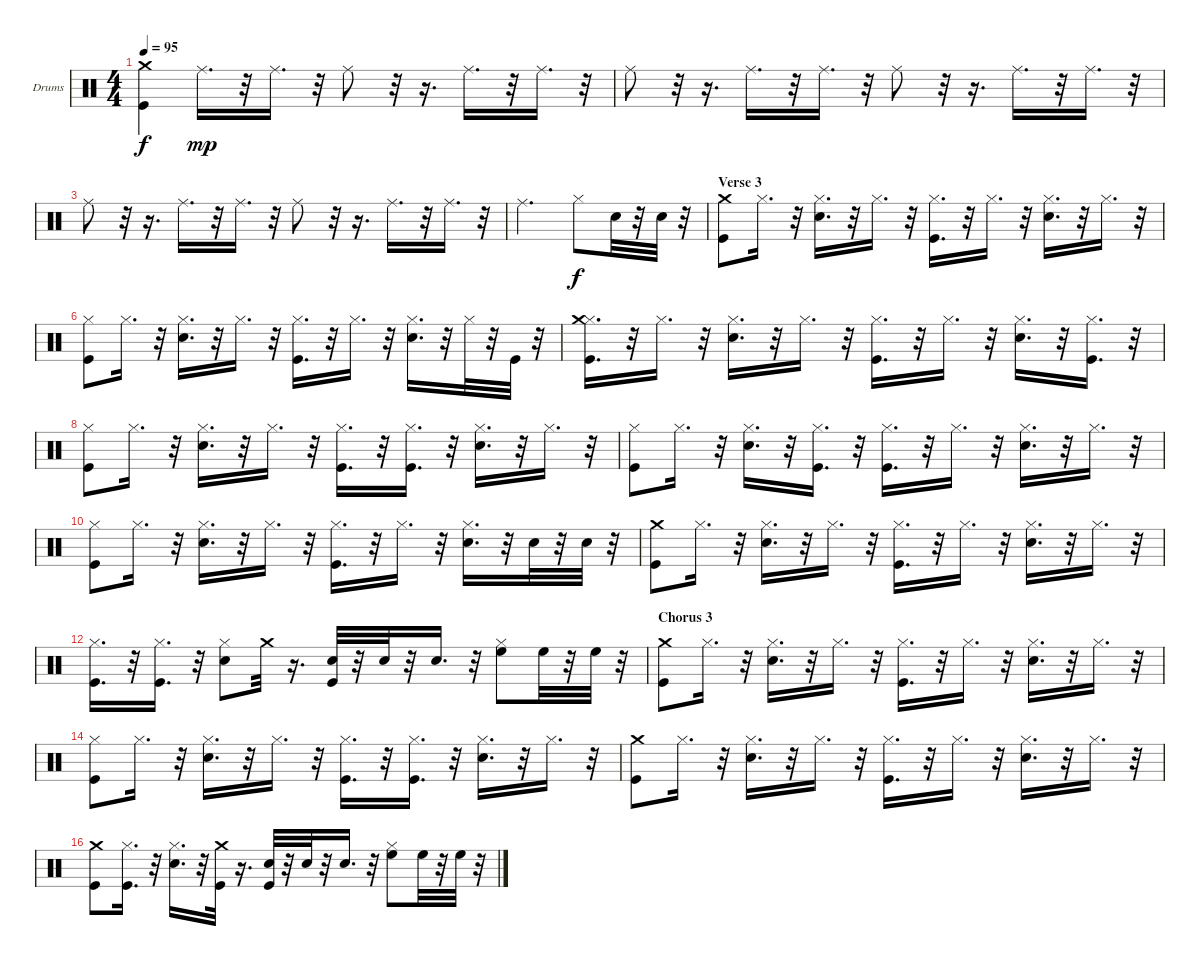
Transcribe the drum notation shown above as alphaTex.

\bracketExtendMode nobrackets
\firstSystemTrackNameOrientation horizontal
\otherSystemsTrackNameOrientation horizontal
\defaultBarNumberDisplay FirstOfSystem
\track ("Drumkit" "Drums") {instrument percussion}
\staff {score}
\articulation defaults
\ts (4 4)
\tempo 95
\clef neutral
\scale
0.477895
\ks c
("Kick (hit)" "Crash medium (hit)").4{dy f} "Ride (middle)".16{d dy mp} r.32 "Ride (middle)".16{d} r.32 "Ride (middle)".8 r.32 r.16{d} "Ride (middle)".16{d} r.32 "Ride (middle)".16{d} r.32 |
\scale
0.522105 "Ride (middle)".8 r.32 r.16{d} "Ride (middle)".16{d} r.32 "Ride (middle)".16{d} r.32 "Ride (middle)".8 r.32 r.16{d} "Ride (middle)".16{d} r.32 "Ride (middle)".16{d} r.32 |
\scale
0.632653 "Ride (middle)".8 r.32 r.16{d} "Ride (middle)".16{d} r.32 "Ride (middle)".16{d} r.32 "Ride (middle)".8 r.32 r.16{d} "Ride (middle)".16{d} r.32 "Ride (middle)".16{d} r.32 |
\scale
0.367347 "Ride (middle)".2{d} "Hi-Hat (closed)".8{dy f} "Snare (hit) 2".32 r.32 "Snare (hit) 2".32 r.32 |
\section ("" "Verse 3")
\scale
0.486692 ("Crash medium (hit)" "Kick (hit)").8 "Hi-Hat (closed)".16{d} r.32 ("Hi-Hat (closed)" "Snare (hit) 2").16{d} r.32 "Hi-Hat (closed)".16{d} r.32 ("Hi-Hat (closed)" "Kick (hit)").16{d} r.32 "Hi-Hat (closed)".16{d} r.32 ("Hi-Hat (closed)" "Snare (hit) 2").16{d} r.32 "Hi-Hat (closed)".16{d} r.32 |
\scale
0.513308 ("Hi-Hat (closed)" "Kick (hit)").8 "Hi-Hat (closed)".16{d} r.32 ("Hi-Hat (closed)" "Snare (hit) 2").16{d} r.32 "Hi-Hat (closed)".16{d} r.32 ("Hi-Hat (closed)" "Kick (hit)").16{d} r.32 "Hi-Hat (closed)".16{d} r.32 ("Hi-Hat (closed)" "Snare (hit) 2").16{d} r.32 "Hi-Hat (closed)".32 r.32 "Kick (hit)".32 r.32 |
\scale
0.507692 ("Hi-Hat (closed)" "Crash medium (hit)" "Kick (hit)").16{d} r.32 "Hi-Hat (closed)".16{d} r.32 ("Hi-Hat (closed)" "Snare (hit) 2").16{d} r.32 "Hi-Hat (closed)".16{d} r.32 ("Hi-Hat (closed)" "Kick (hit)").16{d} r.32 "Hi-Hat (closed)".16{d} r.32 ("Hi-Hat (closed)" "Snare (hit) 2").16{d} r.32 ("Hi-Hat (closed)" "Kick (hit)").16{d} r.32 |
\scale
0.492308 ("Hi-Hat (closed)" "Kick (hit)").8 "Hi-Hat (closed)".16{d} r.32 ("Hi-Hat (closed)" "Snare (hit) 2").16{d} r.32 "Hi-Hat (closed)".16{d} r.32 ("Hi-Hat (closed)" "Kick (hit)").16{d} r.32 ("Hi-Hat (closed)" "Kick (hit)").16{d} r.32 ("Hi-Hat (closed)" "Snare (hit) 2").16{d} r.32 "Hi-Hat (closed)".16{d} r.32 |
\scale
0.486692 ("Hi-Hat (closed)" "Kick (hit)").8 "Hi-Hat (closed)".16{d} r.32 ("Hi-Hat (closed)" "Snare (hit) 2").16{d} r.32 ("Hi-Hat (closed)" "Kick (hit)").16{d} r.32 ("Hi-Hat (closed)" "Kick (hit)").16{d} r.32 "Hi-Hat (closed)".16{d} r.32 ("Hi-Hat (closed)" "Snare (hit) 2").16{d} r.32 "Hi-Hat (closed)".16{d} r.32 |
\scale
0.513308 ("Hi-Hat (closed)" "Kick (hit)").8 "Hi-Hat (closed)".16{d} r.32 ("Hi-Hat (closed)" "Snare (hit) 2").16{d} r.32 "Hi-Hat (closed)".16{d} r.32 ("Hi-Hat (closed)" "Kick (hit)").16{d} r.32 "Hi-Hat (closed)".16{d} r.32 ("Hi-Hat (closed)" "Snare (hit) 2").16{d} r.32 "Snare (hit) 2".32 r.32 "Snare (hit) 2".32 r.32 |
\scale
0.481203 ("Crash medium (hit)" "Kick (hit)").8 "Hi-Hat (closed)".16{d} r.32 ("Hi-Hat (closed)" "Snare (hit) 2").16{d} r.32 "Hi-Hat (closed)".16{d} r.32 ("Hi-Hat (closed)" "Kick (hit)").16{d} r.32 "Hi-Hat (closed)".16{d} r.32 ("Hi-Hat (closed)" "Snare (hit) 2").16{d} r.32 "Hi-Hat (closed)".16{d} r.32 |
\scale
0.518797 ("Kick (hit)" "Hi-Hat (closed)").16{d} r.32 ("Kick (hit)" "Hi-Hat (closed)").16{d} r.32 ("Snare (hit) 2" "Hi-Hat (closed)").8 "Crash medium (hit)".32 r.16{d} ("Snare (hit) 2" "Kick (hit)").32 r.32 "Snare (hit) 2".32 r.32 "Snare (hit) 2".16{d} r.32 ("High Floor Tom (hit)" "Hi-Hat (closed)").8 "High Floor Tom (hit)".32 r.32 "High Floor Tom (hit)".32 r.32 |
\section ("" "Chorus 3")
\scale
0.5 ("Kick (hit)" "Crash medium (hit)").8 "Hi-Hat (closed)".16{d} r.32 ("Hi-Hat (closed)" "Snare (hit) 2").16{d} r.32 "Hi-Hat (closed)".16{d} r.32 ("Hi-Hat (closed)" "Kick (hit)").16{d} r.32 "Hi-Hat (closed)".16{d} r.32 ("Hi-Hat (closed)" "Snare (hit) 2").16{d} r.32 "Hi-Hat (closed)".16{d} r.32 |
\scale
0.5 ("Hi-Hat (closed)" "Kick (hit)").8 "Hi-Hat (closed)".16{d} r.32 ("Hi-Hat (closed)" "Snare (hit) 2").16{d} r.32 "Hi-Hat (closed)".16{d} r.32 ("Hi-Hat (closed)" "Kick (hit)").16{d} r.32 ("Hi-Hat (closed)" "Kick (hit)").16{d} r.32 ("Hi-Hat (closed)" "Snare (hit) 2").16{d} r.32 "Hi-Hat (closed)".16{d} r.32 |
\scale
0.481203 ("Kick (hit)" "Crash medium (hit)").8 "Hi-Hat (closed)".16{d} r.32 ("Hi-Hat (closed)" "Snare (hit) 2").16{d} r.32 "Hi-Hat (closed)".16{d} r.32 ("Hi-Hat (closed)" "Kick (hit)").16{d} r.32 "Hi-Hat (closed)".16{d} r.32 ("Hi-Hat (closed)" "Snare (hit) 2").16{d} r.32 "Hi-Hat (closed)".16{d} r.32 |
\scale
0.518797 ("Kick (hit)" "Crash medium (hit)").8 ("Hi-Hat (closed)" "Kick (hit)").16{d} r.32 ("Hi-Hat (closed)" "Snare (hit) 2").16{d} r.32 ("Kick (hit)" "Crash medium (hit)").32 r.16{d} ("Snare (hit) 2" "Kick (hit)").32 r.32 "Snare (hit) 2".32 r.32 "Snare (hit) 2".16{d} r.32 ("Hi-Hat (closed)" "High Floor Tom (hit)").8 "High Floor Tom (hit)".32 r.32 "High Floor Tom (hit)".32 r.32
